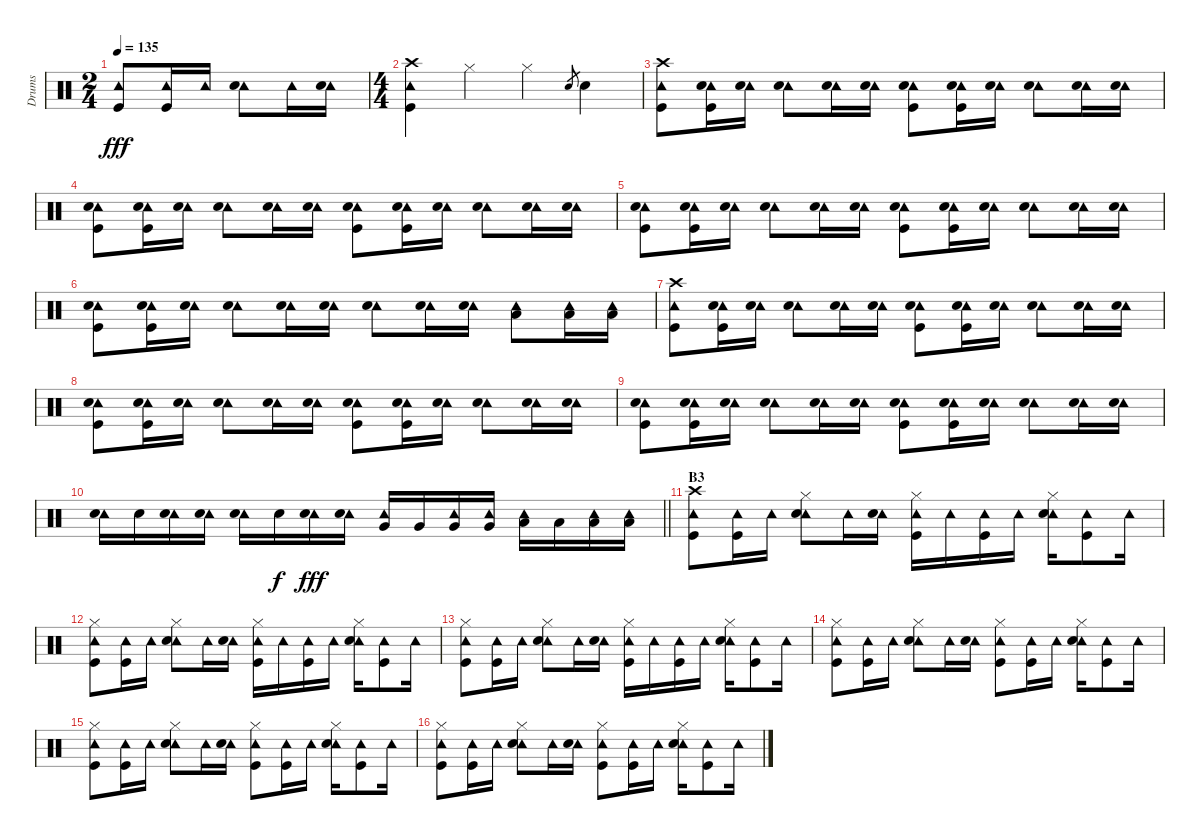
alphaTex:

\track ("Drums" "Drums") {instrument percussion}
\staff {score}
\articulation defaults
\ts (2 4)
\tempo 135
\clef neutral
\ks c
("Tambourine (hit)" "Kick (hit)").8{dy fff} ("Tambourine (hit)" "Kick (hit)").16 "Tambourine (hit)".16 ("Tambourine (hit)" "Snare (hit) 2").8 "Tambourine (hit)".16 ("Tambourine (hit)" "Snare (hit) 2").16 |
\ts (4 4)
("Crash high (hit)" "Tambourine (hit)" "Kick (hit)").4 "Hi-Hat (closed)".4 "Hi-Hat (closed)".4 "Snare (hit) 2".8{gr} "Snare (hit) 2".4 |
("Crash high (hit)" "Tambourine (hit)" "Kick (hit)").8 ("Tambourine (hit)" "Snare (hit) 2" "Kick (hit)").16 ("Tambourine (hit)" "Snare (hit) 2").16 ("Tambourine (hit)" "Snare (hit) 2").8 ("Tambourine (hit)" "Snare (hit) 2").16 ("Tambourine (hit)" "Snare (hit) 2").16 ("Tambourine (hit)" "Snare (hit) 2" "Kick (hit)").8 ("Tambourine (hit)" "Snare (hit) 2" "Kick (hit)").16 ("Tambourine (hit)" "Snare (hit) 2").16 ("Tambourine (hit)" "Snare (hit) 2").8 ("Tambourine (hit)" "Snare (hit) 2").16 ("Tambourine (hit)" "Snare (hit) 2").16 |
("Tambourine (hit)" "Snare (hit) 2" "Kick (hit)").8 ("Tambourine (hit)" "Snare (hit) 2" "Kick (hit)").16 ("Tambourine (hit)" "Snare (hit) 2").16 ("Tambourine (hit)" "Snare (hit) 2").8 ("Tambourine (hit)" "Snare (hit) 2").16 ("Tambourine (hit)" "Snare (hit) 2").16 ("Tambourine (hit)" "Snare (hit) 2" "Kick (hit)").8 ("Tambourine (hit)" "Snare (hit) 2" "Kick (hit)").16 ("Tambourine (hit)" "Snare (hit) 2").16 ("Tambourine (hit)" "Snare (hit) 2").8 ("Tambourine (hit)" "Snare (hit) 2").16 ("Tambourine (hit)" "Snare (hit) 2").16 |
("Tambourine (hit)" "Snare (hit) 2" "Kick (hit)").8 ("Tambourine (hit)" "Snare (hit) 2" "Kick (hit)").16 ("Tambourine (hit)" "Snare (hit) 2").16 ("Tambourine (hit)" "Snare (hit) 2").8 ("Tambourine (hit)" "Snare (hit) 2").16 ("Tambourine (hit)" "Snare (hit) 2").16 ("Tambourine (hit)" "Snare (hit) 2" "Kick (hit)").8 ("Tambourine (hit)" "Snare (hit) 2" "Kick (hit)").16 ("Tambourine (hit)" "Snare (hit) 2").16 ("Tambourine (hit)" "Snare (hit) 2").8 ("Tambourine (hit)" "Snare (hit) 2").16 ("Tambourine (hit)" "Snare (hit) 2").16 |
("Tambourine (hit)" "Snare (hit) 2" "Kick (hit)").8 ("Tambourine (hit)" "Snare (hit) 2" "Kick (hit)").16 ("Tambourine (hit)" "Snare (hit) 2").16 ("Tambourine (hit)" "Snare (hit) 2").8 ("Tambourine (hit)" "Snare (hit) 2").16 ("Tambourine (hit)" "Snare (hit) 2").16 ("Tambourine (hit)" "Snare (hit) 2").8 ("Tambourine (hit)" "Snare (hit) 2").16 ("Tambourine (hit)" "Snare (hit) 2").16 ("Tambourine (hit)" "Low Tom (hit)").8 ("Tambourine (hit)" "Low Tom (hit)").16 ("Tambourine (hit)" "Low Tom (hit)").16 |
("Crash high (hit)" "Tambourine (hit)" "Kick (hit)").8 ("Tambourine (hit)" "Snare (hit) 2" "Kick (hit)").16 ("Tambourine (hit)" "Snare (hit) 2").16 ("Tambourine (hit)" "Snare (hit) 2").8 ("Tambourine (hit)" "Snare (hit) 2").16 ("Tambourine (hit)" "Snare (hit) 2").16 ("Tambourine (hit)" "Snare (hit) 2" "Kick (hit)").8 ("Tambourine (hit)" "Snare (hit) 2" "Kick (hit)").16 ("Tambourine (hit)" "Snare (hit) 2").16 ("Tambourine (hit)" "Snare (hit) 2").8 ("Tambourine (hit)" "Snare (hit) 2").16 ("Tambourine (hit)" "Snare (hit) 2").16 |
("Tambourine (hit)" "Snare (hit) 2" "Kick (hit)").8 ("Tambourine (hit)" "Snare (hit) 2" "Kick (hit)").16 ("Tambourine (hit)" "Snare (hit) 2").16 ("Tambourine (hit)" "Snare (hit) 2").8 ("Tambourine (hit)" "Snare (hit) 2").16 ("Tambourine (hit)" "Snare (hit) 2").16 ("Tambourine (hit)" "Snare (hit) 2" "Kick (hit)").8 ("Tambourine (hit)" "Snare (hit) 2" "Kick (hit)").16 ("Tambourine (hit)" "Snare (hit) 2").16 ("Tambourine (hit)" "Snare (hit) 2").8 ("Tambourine (hit)" "Snare (hit) 2").16 ("Tambourine (hit)" "Snare (hit) 2").16 |
("Tambourine (hit)" "Snare (hit) 2" "Kick (hit)").8 ("Tambourine (hit)" "Snare (hit) 2" "Kick (hit)").16 ("Tambourine (hit)" "Snare (hit) 2").16 ("Tambourine (hit)" "Snare (hit) 2").8 ("Tambourine (hit)" "Snare (hit) 2").16 ("Tambourine (hit)" "Snare (hit) 2").16 ("Tambourine (hit)" "Snare (hit) 2" "Kick (hit)").8 ("Tambourine (hit)" "Snare (hit) 2" "Kick (hit)").16 ("Tambourine (hit)" "Snare (hit) 2").16 ("Tambourine (hit)" "Snare (hit) 2").8 ("Tambourine (hit)" "Snare (hit) 2").16 ("Tambourine (hit)" "Snare (hit) 2").16 |
\barLineRight lightlight
("Tambourine (hit)" "Snare (hit) 2").16 "Snare (hit) 2".16 ("Tambourine (hit)" "Snare (hit) 2").16 ("Tambourine (hit)" "Snare (hit) 2").16 ("Tambourine (hit)" "Snare (hit) 2").16 "Snare (hit) 2".16{dy f} ("Tambourine (hit)" "Snare (hit) 2").16{dy fff} ("Tambourine (hit)" "Snare (hit) 2").16 ("Tambourine (hit)" "Very Low Tom (hit)").16 "Very Low Tom (hit)".16 ("Tambourine (hit)" "Very Low Tom (hit)").16 ("Tambourine (hit)" "Very Low Tom (hit)").16 ("Tambourine (hit)" "Low Floor Tom (hit)").16 "Low Floor Tom (hit)".16 ("Tambourine (hit)" "Low Floor Tom (hit)").16 ("Tambourine (hit)" "Low Floor Tom (hit)").16 |
\section ("" "B3")
("Crash high (hit)" "Tambourine (hit)" "Kick (hit)").8 ("Tambourine (hit)" "Kick (hit)").16 "Tambourine (hit)".16 ("Hi-Hat (closed)" "Tambourine (hit)" "Snare (hit) 2").8 "Tambourine (hit)".16 ("Tambourine (hit)" "Snare (hit) 2").16 ("Hi-Hat (closed)" "Tambourine (hit)" "Kick (hit)").16 "Tambourine (hit)".16 ("Tambourine (hit)" "Kick (hit)").16 "Tambourine (hit)".16 ("Hi-Hat (closed)" "Tambourine (hit)" "Snare (hit) 2").16 ("Tambourine (hit)" "Kick (hit)").8 "Tambourine (hit)".16 |
("Hi-Hat (closed)" "Tambourine (hit)" "Kick (hit)").8 ("Tambourine (hit)" "Kick (hit)").16 "Tambourine (hit)".16 ("Hi-Hat (closed)" "Tambourine (hit)" "Snare (hit) 2").8 "Tambourine (hit)".16 ("Tambourine (hit)" "Snare (hit) 2").16 ("Hi-Hat (closed)" "Tambourine (hit)" "Kick (hit)").16 "Tambourine (hit)".16 ("Tambourine (hit)" "Kick (hit)").16 "Tambourine (hit)".16 ("Hi-Hat (closed)" "Tambourine (hit)" "Snare (hit) 2").16 ("Tambourine (hit)" "Kick (hit)").8 "Tambourine (hit)".16 |
("Hi-Hat (closed)" "Tambourine (hit)" "Kick (hit)").8 ("Tambourine (hit)" "Kick (hit)").16 "Tambourine (hit)".16 ("Hi-Hat (closed)" "Tambourine (hit)" "Snare (hit) 2").8 "Tambourine (hit)".16 ("Tambourine (hit)" "Snare (hit) 2").16 ("Hi-Hat (closed)" "Tambourine (hit)" "Kick (hit)").16 "Tambourine (hit)".16 ("Tambourine (hit)" "Kick (hit)").16 "Tambourine (hit)".16 ("Hi-Hat (closed)" "Tambourine (hit)" "Snare (hit) 2").16 ("Tambourine (hit)" "Kick (hit)").8 "Tambourine (hit)".16 |
("Hi-Hat (closed)" "Tambourine (hit)" "Kick (hit)").8 ("Tambourine (hit)" "Kick (hit)").16 "Tambourine (hit)".16 ("Hi-Hat (closed)" "Tambourine (hit)" "Snare (hit) 2").8 "Tambourine (hit)".16 ("Tambourine (hit)" "Snare (hit) 2").16 ("Hi-Hat (closed)" "Tambourine (hit)" "Kick (hit)").8 ("Tambourine (hit)" "Kick (hit)").16 "Tambourine (hit)".16 ("Hi-Hat (closed)" "Tambourine (hit)" "Snare (hit) 2").16 ("Tambourine (hit)" "Kick (hit)").8 "Tambourine (hit)".16 |
("Hi-Hat (closed)" "Tambourine (hit)" "Kick (hit)").8 ("Tambourine (hit)" "Kick (hit)").16 "Tambourine (hit)".16 ("Hi-Hat (closed)" "Tambourine (hit)" "Snare (hit) 2").8 "Tambourine (hit)".16 ("Tambourine (hit)" "Snare (hit) 2").16 ("Hi-Hat (closed)" "Tambourine (hit)" "Kick (hit)").8 ("Tambourine (hit)" "Kick (hit)").16 "Tambourine (hit)".16 ("Hi-Hat (closed)" "Tambourine (hit)" "Snare (hit) 2").16 ("Tambourine (hit)" "Kick (hit)").8 "Tambourine (hit)".16 |
("Hi-Hat (closed)" "Tambourine (hit)" "Kick (hit)").8 ("Tambourine (hit)" "Kick (hit)").16 "Tambourine (hit)".16 ("Hi-Hat (closed)" "Tambourine (hit)" "Snare (hit) 2").8 "Tambourine (hit)".16 ("Tambourine (hit)" "Snare (hit) 2").16 ("Hi-Hat (closed)" "Tambourine (hit)" "Kick (hit)").8 ("Tambourine (hit)" "Kick (hit)").16 "Tambourine (hit)".16 ("Hi-Hat (closed)" "Tambourine (hit)" "Snare (hit) 2").16 ("Tambourine (hit)" "Kick (hit)").8 "Tambourine (hit)".16
